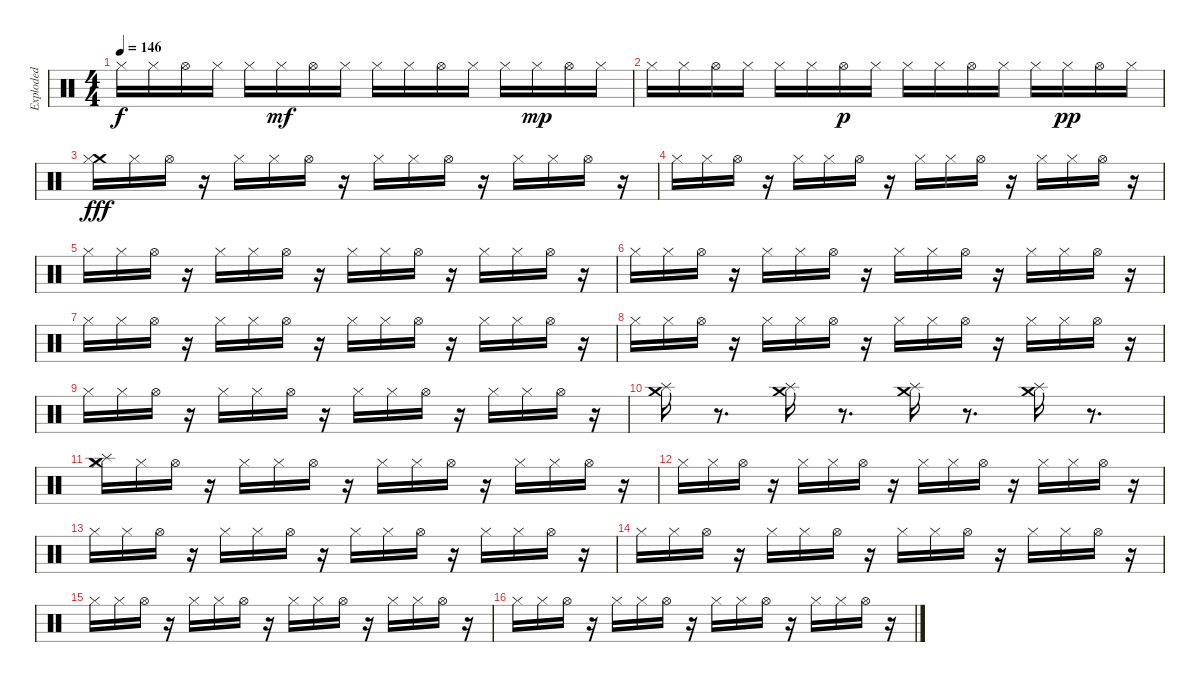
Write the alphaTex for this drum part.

\track ("Exploded" "Exploded") {instrument percussion}
\staff {score}
\articulation defaults
\ts (4 4)
\tempo 146
\clef neutral
\ks c "Hi-Hat (closed)".16{dy f} "Hi-Hat (closed)".16 "Hi-Hat (open)".16 "Hi-Hat (closed)".16 "Hi-Hat (closed)".16 "Hi-Hat (closed)".16{dy mf} "Hi-Hat (open)".16 "Hi-Hat (closed)".16 "Hi-Hat (closed)".16 "Hi-Hat (closed)".16 "Hi-Hat (open)".16 "Hi-Hat (closed)".16 "Hi-Hat (closed)".16 "Hi-Hat (closed)".16{dy mp} "Hi-Hat (open)".16 "Hi-Hat (closed)".16
|
"Hi-Hat (closed)".16 "Hi-Hat (closed)".16 "Hi-Hat (open)".16 "Hi-Hat (closed)".16 "Hi-Hat (closed)".16 "Hi-Hat (closed)".16 "Hi-Hat (open)".16{dy p} "Hi-Hat (closed)".16 "Hi-Hat (closed)".16 "Hi-Hat (closed)".16 "Hi-Hat (open)".16 "Hi-Hat (closed)".16 "Hi-Hat (closed)".16 "Hi-Hat (closed)".16{dy pp} "Hi-Hat (open)".16 "Hi-Hat (closed)".16 |
("Crash medium (hit)" "Hi-Hat (closed)").16{dy fff} "Hi-Hat (closed)".16 "Hi-Hat (open)".16 r.16 "Hi-Hat (closed)".16 "Hi-Hat (closed)".16 "Hi-Hat (open)".16 r.16 "Hi-Hat (closed)".16 "Hi-Hat (closed)".16 "Hi-Hat (open)".16 r.16 "Hi-Hat (closed)".16 "Hi-Hat (closed)".16 "Hi-Hat (open)".16 r.16 |
"Hi-Hat (closed)".16 "Hi-Hat (closed)".16 "Hi-Hat (open)".16 r.16 "Hi-Hat (closed)".16 "Hi-Hat (closed)".16 "Hi-Hat (open)".16 r.16 "Hi-Hat (closed)".16 "Hi-Hat (closed)".16 "Hi-Hat (open)".16 r.16 "Hi-Hat (closed)".16 "Hi-Hat (closed)".16 "Hi-Hat (open)".16 r.16 |
"Hi-Hat (closed)".16 "Hi-Hat (closed)".16 "Hi-Hat (open)".16 r.16 "Hi-Hat (closed)".16 "Hi-Hat (closed)".16 "Hi-Hat (open)".16 r.16 "Hi-Hat (closed)".16 "Hi-Hat (closed)".16 "Hi-Hat (open)".16 r.16 "Hi-Hat (closed)".16 "Hi-Hat (closed)".16 "Hi-Hat (open)".16 r.16 |
"Hi-Hat (closed)".16 "Hi-Hat (closed)".16 "Hi-Hat (open)".16 r.16 "Hi-Hat (closed)".16 "Hi-Hat (closed)".16 "Hi-Hat (open)".16 r.16 "Hi-Hat (closed)".16 "Hi-Hat (closed)".16 "Hi-Hat (open)".16 r.16 "Hi-Hat (closed)".16 "Hi-Hat (closed)".16 "Hi-Hat (open)".16 r.16 |
"Hi-Hat (closed)".16 "Hi-Hat (closed)".16 "Hi-Hat (open)".16 r.16 "Hi-Hat (closed)".16 "Hi-Hat (closed)".16 "Hi-Hat (open)".16 r.16 "Hi-Hat (closed)".16 "Hi-Hat (closed)".16 "Hi-Hat (open)".16 r.16 "Hi-Hat (closed)".16 "Hi-Hat (closed)".16 "Hi-Hat (open)".16 r.16 |
"Hi-Hat (closed)".16 "Hi-Hat (closed)".16 "Hi-Hat (open)".16 r.16 "Hi-Hat (closed)".16 "Hi-Hat (closed)".16 "Hi-Hat (open)".16 r.16 "Hi-Hat (closed)".16 "Hi-Hat (closed)".16 "Hi-Hat (open)".16 r.16 "Hi-Hat (closed)".16 "Hi-Hat (closed)".16 "Hi-Hat (open)".16 r.16 |
"Hi-Hat (closed)".16 "Hi-Hat (closed)".16 "Hi-Hat (open)".16 r.16 "Hi-Hat (closed)".16 "Hi-Hat (closed)".16 "Hi-Hat (open)".16 r.16 "Hi-Hat (closed)".16 "Hi-Hat (closed)".16 "Hi-Hat (open)".16 r.16 "Hi-Hat (closed)".16 "Hi-Hat (closed)".16 "Hi-Hat (open)".16 r.16 |
("Splash (hit)" "Crash medium (hit)").16 r.8{d} ("Crash medium (hit)" "Splash (hit)").16 r.8{d} ("Splash (hit)" "Crash medium (hit)").16 r.8{d} ("Splash (hit)" "Crash medium (hit)").16 r.8{d} |
("Hi-Hat (closed)" "Crash medium (hit)" "Splash (hit)").16 "Hi-Hat (closed)".16 "Hi-Hat (open)".16 r.16 "Hi-Hat (closed)".16 "Hi-Hat (closed)".16 "Hi-Hat (open)".16 r.16 "Hi-Hat (closed)".16 "Hi-Hat (closed)".16 "Hi-Hat (open)".16 r.16 "Hi-Hat (closed)".16 "Hi-Hat (closed)".16 "Hi-Hat (open)".16 r.16 |
"Hi-Hat (closed)".16 "Hi-Hat (closed)".16 "Hi-Hat (open)".16 r.16 "Hi-Hat (closed)".16 "Hi-Hat (closed)".16 "Hi-Hat (open)".16 r.16 "Hi-Hat (closed)".16 "Hi-Hat (closed)".16 "Hi-Hat (open)".16 r.16 "Hi-Hat (closed)".16 "Hi-Hat (closed)".16 "Hi-Hat (open)".16 r.16 |
"Hi-Hat (closed)".16 "Hi-Hat (closed)".16 "Hi-Hat (open)".16 r.16 "Hi-Hat (closed)".16 "Hi-Hat (closed)".16 "Hi-Hat (open)".16 r.16 "Hi-Hat (closed)".16 "Hi-Hat (closed)".16 "Hi-Hat (open)".16 r.16 "Hi-Hat (closed)".16 "Hi-Hat (closed)".16 "Hi-Hat (open)".16 r.16 |
"Hi-Hat (closed)".16 "Hi-Hat (closed)".16 "Hi-Hat (open)".16 r.16 "Hi-Hat (closed)".16 "Hi-Hat (closed)".16 "Hi-Hat (open)".16 r.16 "Hi-Hat (closed)".16 "Hi-Hat (closed)".16 "Hi-Hat (open)".16 r.16 "Hi-Hat (closed)".16 "Hi-Hat (closed)".16 "Hi-Hat (open)".16 r.16 |
"Hi-Hat (closed)".16 "Hi-Hat (closed)".16 "Hi-Hat (open)".16 r.16 "Hi-Hat (closed)".16 "Hi-Hat (closed)".16 "Hi-Hat (open)".16 r.16 "Hi-Hat (closed)".16 "Hi-Hat (closed)".16 "Hi-Hat (open)".16 r.16 "Hi-Hat (closed)".16 "Hi-Hat (closed)".16 "Hi-Hat (open)".16 r.16 |
"Hi-Hat (closed)".16 "Hi-Hat (closed)".16 "Hi-Hat (open)".16 r.16 "Hi-Hat (closed)".16 "Hi-Hat (closed)".16 "Hi-Hat (open)".16 r.16 "Hi-Hat (closed)".16 "Hi-Hat (closed)".16 "Hi-Hat (open)".16 r.16 "Hi-Hat (closed)".16 "Hi-Hat (closed)".16 "Hi-Hat (open)".16 r.16
